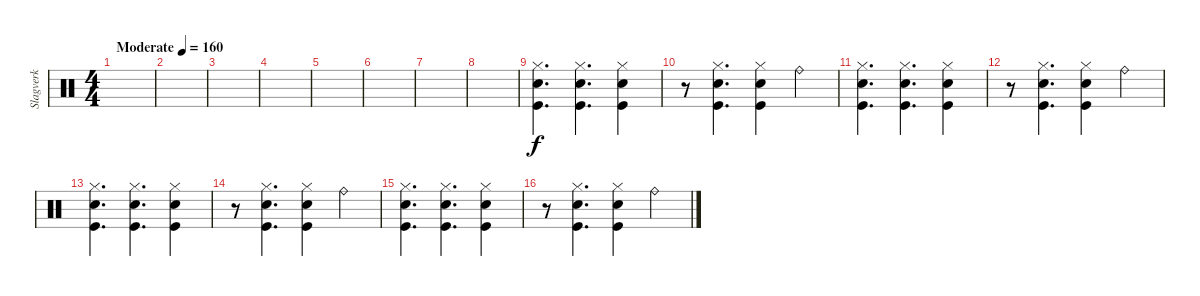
\track ("Slagverk" "Slagverk") {instrument percussion}
\staff {score}
\articulation defaults
\ts (4 4)
\tempo (160 "Moderate")
\clef neutral
\ks c
|
|
|
|
|
|
|
|
("Hi-Hat (closed)" "Kick (hit)" "Hand Clap (hit)").4{d} ("Hi-Hat (closed)" "Kick (hit)" "Hand Clap (hit)").4{d} ("Hi-Hat (closed)" "Kick (hit)" "Hand Clap (hit)").4 |
r.8 ("Hi-Hat (closed)" "Kick (hit)" "Hand Clap (hit)").4{d} ("Hi-Hat (closed)" "Kick (hit)" "Hand Clap (hit)").4 "Ride (bell)".4 |
("Hi-Hat (closed)" "Kick (hit)" "Hand Clap (hit)").4{d} ("Hi-Hat (closed)" "Kick (hit)" "Hand Clap (hit)").4{d} ("Hi-Hat (closed)" "Kick (hit)" "Hand Clap (hit)").4 |
r.8 ("Hi-Hat (closed)" "Kick (hit)" "Hand Clap (hit)").4{d} ("Hi-Hat (closed)" "Kick (hit)" "Hand Clap (hit)").4 "Ride (bell)".4 |
("Hi-Hat (closed)" "Kick (hit)" "Hand Clap (hit)").4{d} ("Hi-Hat (closed)" "Kick (hit)" "Hand Clap (hit)").4{d} ("Hi-Hat (closed)" "Kick (hit)" "Hand Clap (hit)").4 |
r.8 ("Hi-Hat (closed)" "Kick (hit)" "Hand Clap (hit)").4{d} ("Hi-Hat (closed)" "Kick (hit)" "Hand Clap (hit)").4 "Ride (bell)".4 |
("Hi-Hat (closed)" "Kick (hit)" "Hand Clap (hit)").4{d} ("Hi-Hat (closed)" "Kick (hit)" "Hand Clap (hit)").4{d} ("Hi-Hat (closed)" "Kick (hit)" "Hand Clap (hit)").4 |
r.8 ("Hi-Hat (closed)" "Kick (hit)" "Hand Clap (hit)").4{d} ("Hi-Hat (closed)" "Kick (hit)" "Hand Clap (hit)").4 "Ride (bell)".4
